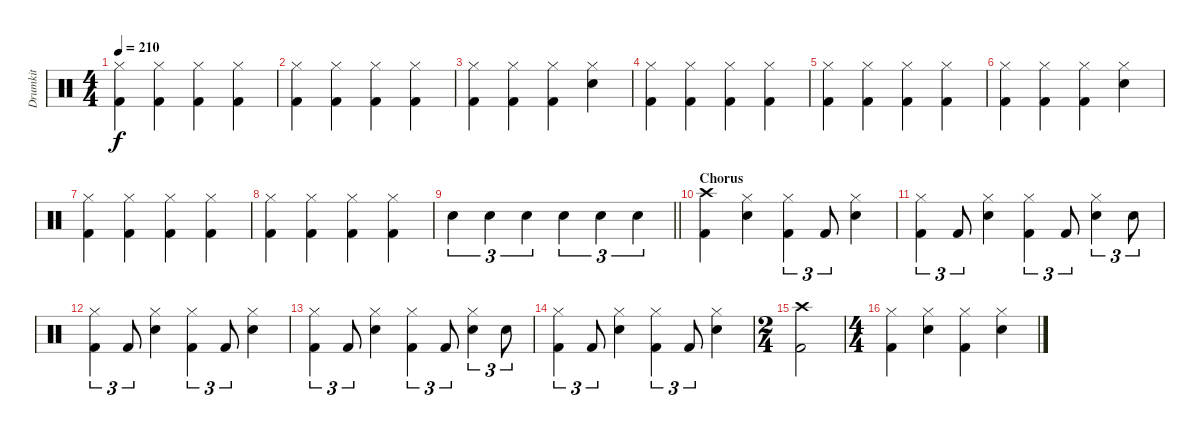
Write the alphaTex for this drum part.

\track ("Drumkit" "Drumkit") {instrument percussion}
\staff {score}
\articulation defaults
\ts (4 4)
\tempo 210
\clef neutral
\ks c
("Hi-Hat (closed)" "Kick (hit) 2").4{dy f} ("Hi-Hat (closed)" "Kick (hit) 2").4 ("Hi-Hat (closed)" "Kick (hit) 2").4 ("Hi-Hat (closed)" "Kick (hit) 2").4 |
("Hi-Hat (closed)" "Kick (hit) 2").4 ("Hi-Hat (closed)" "Kick (hit) 2").4 ("Hi-Hat (closed)" "Kick (hit) 2").4 ("Hi-Hat (closed)" "Kick (hit) 2").4 |
("Hi-Hat (closed)" "Kick (hit) 2").4 ("Hi-Hat (closed)" "Kick (hit) 2").4 ("Hi-Hat (closed)" "Kick (hit) 2").4 ("Hi-Hat (closed)" "Electric Snare (hit)").4 |
("Hi-Hat (closed)" "Kick (hit) 2").4 ("Hi-Hat (closed)" "Kick (hit) 2").4 ("Hi-Hat (closed)" "Kick (hit) 2").4 ("Hi-Hat (closed)" "Kick (hit) 2").4 |
("Hi-Hat (closed)" "Kick (hit) 2").4 ("Hi-Hat (closed)" "Kick (hit) 2").4 ("Hi-Hat (closed)" "Kick (hit) 2").4 ("Hi-Hat (closed)" "Kick (hit) 2").4 |
("Hi-Hat (closed)" "Kick (hit) 2").4 ("Hi-Hat (closed)" "Kick (hit) 2").4 ("Hi-Hat (closed)" "Kick (hit) 2").4 ("Hi-Hat (closed)" "Electric Snare (hit)").4 |
("Hi-Hat (closed)" "Kick (hit) 2").4 ("Hi-Hat (closed)" "Kick (hit) 2").4 ("Hi-Hat (closed)" "Kick (hit) 2").4 ("Hi-Hat (closed)" "Kick (hit) 2").4 |
("Hi-Hat (closed)" "Kick (hit) 2").4 ("Hi-Hat (closed)" "Kick (hit) 2").4 ("Hi-Hat (closed)" "Kick (hit) 2").4 ("Hi-Hat (closed)" "Kick (hit) 2").4 |
\barLineRight lightlight "Electric Snare (hit)".4{tu (3 2)} "Electric Snare (hit)".4{tu (3 2)} "Electric Snare (hit)".4{tu (3 2)} "Electric Snare (hit)".4{tu (3 2)} "Electric Snare (hit)".4{tu (3 2)} "Electric Snare (hit)".4{tu (3 2)}
|
\section ("" "Chorus")
("Crash high (hit)" "Kick (hit) 2").4 ("Hi-Hat (closed)" "Electric Snare (hit)").4 ("Hi-Hat (closed)" "Kick (hit) 2").4{tu (3 2)} "Kick (hit) 2".8{tu (3 2)} ("Hi-Hat (closed)" "Electric Snare (hit)").4 |
("Hi-Hat (closed)" "Kick (hit) 2").4{tu (3 2)} "Kick (hit) 2".8{tu (3 2)} ("Hi-Hat (closed)" "Electric Snare (hit)").4 ("Hi-Hat (closed)" "Kick (hit) 2").4{tu (3 2)} "Kick (hit) 2".8{tu (3 2)} ("Hi-Hat (closed)" "Electric Snare (hit)").4{tu (3 2)} "Electric Snare (hit)".8{tu (3 2)} |
("Hi-Hat (closed)" "Kick (hit) 2").4{tu (3 2)} "Kick (hit) 2".8{tu (3 2)} ("Hi-Hat (closed)" "Electric Snare (hit)").4 ("Hi-Hat (closed)" "Kick (hit) 2").4{tu (3 2)} "Kick (hit) 2".8{tu (3 2)} ("Hi-Hat (closed)" "Electric Snare (hit)").4 |
("Hi-Hat (closed)" "Kick (hit) 2").4{tu (3 2)} "Kick (hit) 2".8{tu (3 2)} ("Hi-Hat (closed)" "Electric Snare (hit)").4 ("Hi-Hat (closed)" "Kick (hit) 2").4{tu (3 2)} "Kick (hit) 2".8{tu (3 2)} ("Hi-Hat (closed)" "Electric Snare (hit)").4{tu (3 2)} "Electric Snare (hit)".8{tu (3 2)} |
("Hi-Hat (closed)" "Kick (hit) 2").4{tu (3 2)} "Kick (hit) 2".8{tu (3 2)} ("Hi-Hat (closed)" "Electric Snare (hit)").4 ("Hi-Hat (closed)" "Kick (hit) 2").4{tu (3 2)} "Kick (hit) 2".8{tu (3 2)} ("Hi-Hat (closed)" "Electric Snare (hit)").4 |
\ts (2 4)
("Crash high (hit)" "Kick (hit) 2").2 |
\ts (4 4)
("Hi-Hat (closed)" "Kick (hit) 2").4 ("Hi-Hat (closed)" "Electric Snare (hit)").4 ("Hi-Hat (closed)" "Kick (hit) 2").4 ("Hi-Hat (closed)" "Electric Snare (hit)").4
